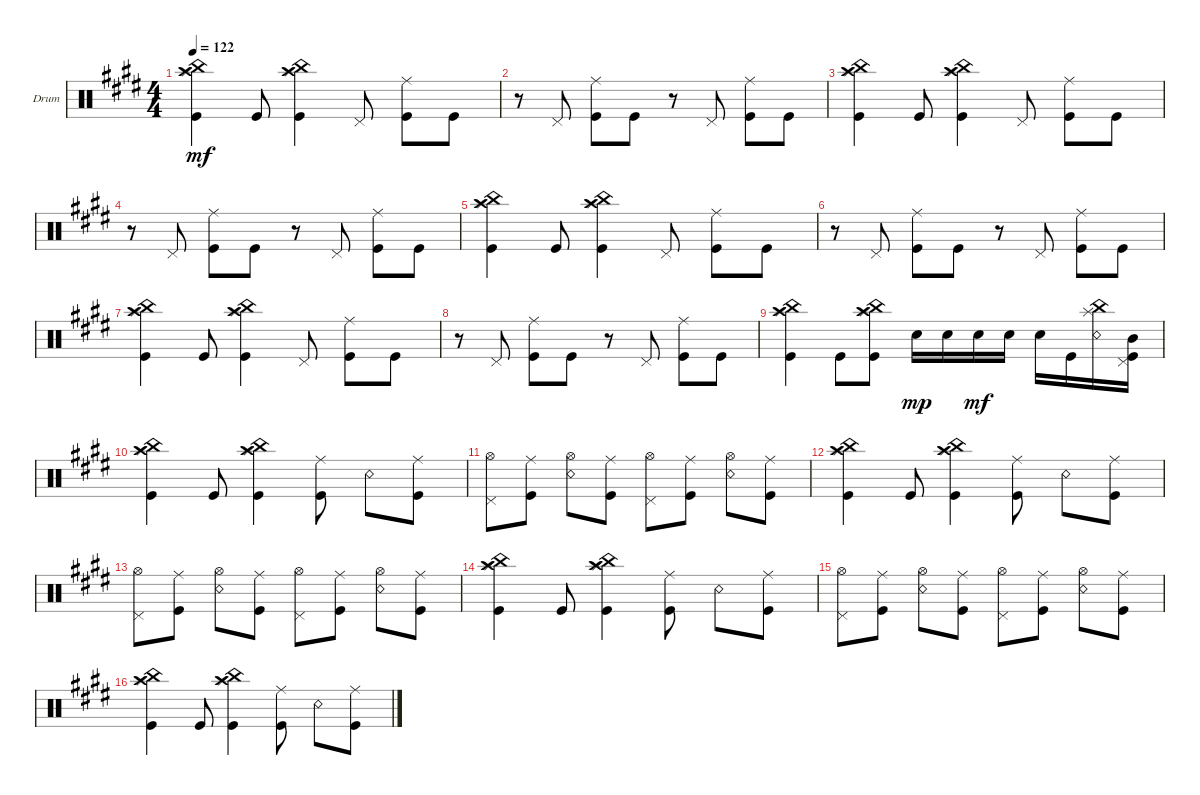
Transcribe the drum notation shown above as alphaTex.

\defaultSystemsLayout 4
\bracketExtendMode groupsimilarinstruments
\firstSystemTrackNameOrientation horizontal
\otherSystemsTrackNameOrientation horizontal
\track ("Bateria" "Drum") {multiBarRest instrument percussion}
\staff {score}
\articulation defaults
\ts (4 4)
\tempo 122
\clef neutral
\ks e
("Kick (hit)" "Crash high (hit)" "China (hit)" "Splash (hit)").4{dy mf} "Kick (hit)".8 ("Kick (hit)" "Crash high (hit)" "China (hit)" "Splash (hit)").4 "Pedal Hi-Hat (hit)".8 ("Kick (hit)" "Ride (middle)").8 "Kick (hit)".8 |
r.8 "Pedal Hi-Hat (hit)".8 ("Kick (hit)" "Ride (middle)").8 "Kick (hit)".8 r.8 "Pedal Hi-Hat (hit)".8 ("Kick (hit)" "Ride (middle)").8 "Kick (hit)".8 |
("Kick (hit)" "Crash high (hit)" "China (hit)" "Splash (hit)").4 "Kick (hit)".8 ("Kick (hit)" "Crash high (hit)" "China (hit)" "Splash (hit)").4 "Pedal Hi-Hat (hit)".8 ("Kick (hit)" "Ride (middle)").8 "Kick (hit)".8 |
r.8 "Pedal Hi-Hat (hit)".8 ("Kick (hit)" "Ride (middle)").8 "Kick (hit)".8 r.8 "Pedal Hi-Hat (hit)".8 ("Kick (hit)" "Ride (middle)").8 "Kick (hit)".8 |
("Kick (hit)" "Crash high (hit)" "China (hit)" "Splash (hit)").4 "Kick (hit)".8 ("Kick (hit)" "Crash high (hit)" "China (hit)" "Splash (hit)").4 "Pedal Hi-Hat (hit)".8 ("Kick (hit)" "Ride (middle)").8 "Kick (hit)".8 |
r.8 "Pedal Hi-Hat (hit)".8 ("Kick (hit)" "Ride (middle)").8 "Kick (hit)".8 r.8 "Pedal Hi-Hat (hit)".8 ("Kick (hit)" "Ride (middle)").8 "Kick (hit)".8 |
("Kick (hit)" "Crash high (hit)" "China (hit)" "Splash (hit)").4 "Kick (hit)".8 ("Kick (hit)" "Crash high (hit)" "China (hit)" "Splash (hit)").4 "Pedal Hi-Hat (hit)".8 ("Kick (hit)" "Ride (middle)").8 "Kick (hit)".8 |
r.8 "Pedal Hi-Hat (hit)".8 ("Kick (hit)" "Ride (middle)").8 "Kick (hit)".8 r.8 "Pedal Hi-Hat (hit)".8 ("Kick (hit)" "Ride (middle)").8 "Kick (hit)".8 |
("Kick (hit)" "Crash high (hit)" "China (hit)" "Splash (hit)").4 "Kick (hit)".8 ("Kick (hit)" "Crash high (hit)" "China (hit)" "Splash (hit)").8 "Snare (hit) 2".16{dy mp} "Snare (hit) 2".16 "Snare (hit) 2".16{dy mf} "Snare (hit) 2".16 "Snare (hit) 2".16 "Kick (hit)".16 ("Snare (rim shot)" "Splash (hit)" "China (hit)").16 ("Mid Tom (hit)" "Pedal Hi-Hat (hit)" "Kick (hit)").16 |
("Kick (hit)" "Crash high (hit)" "China (hit)" "Splash (hit)").4 "Kick (hit)".8 ("Kick (hit)" "Crash high (hit)" "China (hit)" "Splash (hit)").4 ("Kick (hit)" "Ride (middle)").8 "Snare (rim shot)".8 ("Kick (hit)" "Ride (middle)").8 |
("Pedal Hi-Hat (hit)" "Hi-Hat (open)").8 ("Kick (hit)" "Ride (middle)").8 ("Snare (rim shot)" "Hi-Hat (open)").8 ("Kick (hit)" "Ride (middle)").8 ("Pedal Hi-Hat (hit)" "Hi-Hat (open)").8 ("Kick (hit)" "Ride (middle)").8 ("Snare (rim shot)" "Hi-Hat (open)").8 ("Kick (hit)" "Ride (middle)").8 |
("Kick (hit)" "Crash high (hit)" "China (hit)" "Splash (hit)").4 "Kick (hit)".8 ("Kick (hit)" "Crash high (hit)" "China (hit)" "Splash (hit)").4 ("Kick (hit)" "Ride (middle)").8 "Snare (rim shot)".8 ("Kick (hit)" "Ride (middle)").8 |
("Pedal Hi-Hat (hit)" "Hi-Hat (open)").8 ("Kick (hit)" "Ride (middle)").8 ("Snare (rim shot)" "Hi-Hat (open)").8 ("Kick (hit)" "Ride (middle)").8 ("Pedal Hi-Hat (hit)" "Hi-Hat (open)").8 ("Kick (hit)" "Ride (middle)").8 ("Snare (rim shot)" "Hi-Hat (open)").8 ("Kick (hit)" "Ride (middle)").8 |
("Kick (hit)" "Crash high (hit)" "China (hit)" "Splash (hit)").4 "Kick (hit)".8 ("Kick (hit)" "Crash high (hit)" "China (hit)" "Splash (hit)").4 ("Kick (hit)" "Ride (middle)").8 "Snare (rim shot)".8 ("Kick (hit)" "Ride (middle)").8 |
("Pedal Hi-Hat (hit)" "Hi-Hat (open)").8 ("Kick (hit)" "Ride (middle)").8 ("Snare (rim shot)" "Hi-Hat (open)").8 ("Kick (hit)" "Ride (middle)").8 ("Pedal Hi-Hat (hit)" "Hi-Hat (open)").8 ("Kick (hit)" "Ride (middle)").8 ("Snare (rim shot)" "Hi-Hat (open)").8 ("Kick (hit)" "Ride (middle)").8 |
("Kick (hit)" "Crash high (hit)" "China (hit)" "Splash (hit)").4 "Kick (hit)".8 ("Kick (hit)" "Crash high (hit)" "China (hit)" "Splash (hit)").4 ("Kick (hit)" "Ride (middle)").8 "Snare (rim shot)".8 ("Kick (hit)" "Ride (middle)").8
